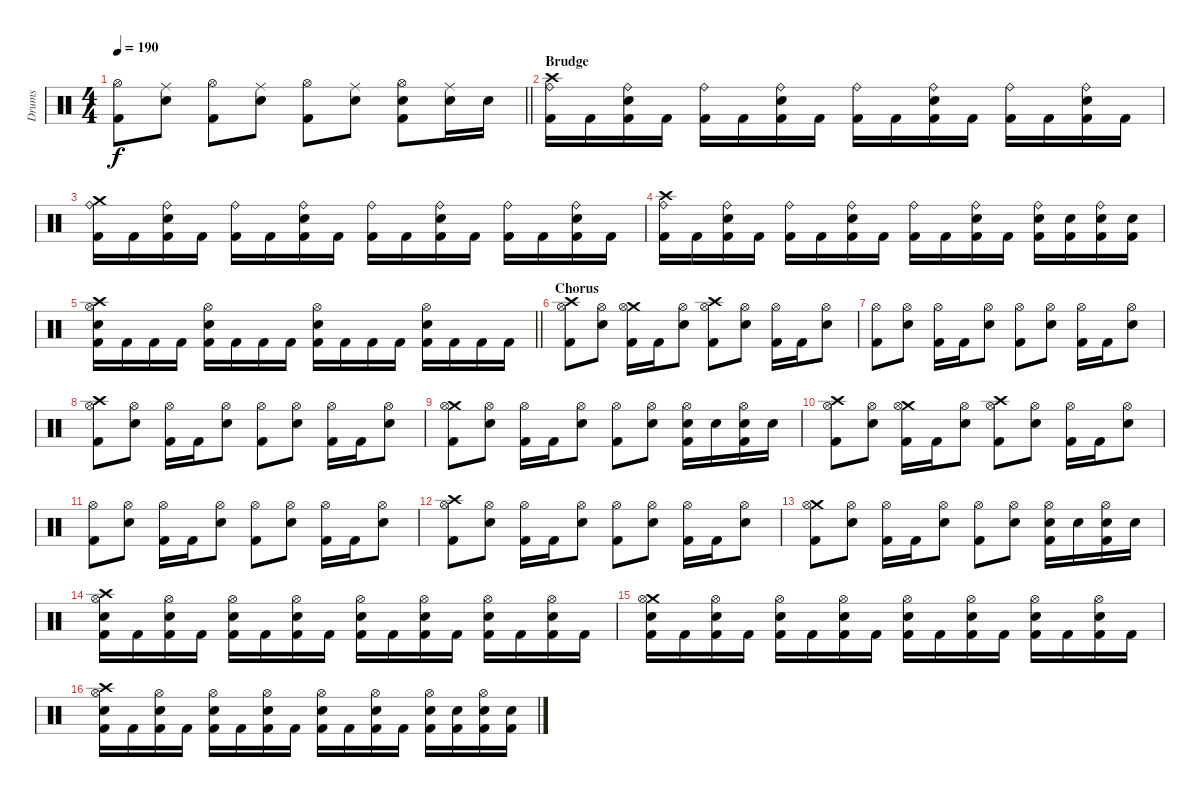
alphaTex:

\track ("Drums" "Drums") {instrument percussion}
\staff {score}
\articulation defaults
\ts (4 4)
\tempo 190
\clef neutral
\barLineRight lightlight
\ks c
("Hi-Hat (open)" "Kick (hit) 2").8{dy f} ("Ride (middle)" "Snare (hit) 2").8 ("Hi-Hat (open)" "Kick (hit) 2").8 ("Ride (middle)" "Snare (hit) 2").8 ("Hi-Hat (open)" "Kick (hit) 2").8 ("Ride (middle)" "Snare (hit) 2").8 ("Hi-Hat (open)" "Snare (hit) 2" "Kick (hit) 2").8 ("Ride (middle)" "Snare (hit) 2").16 "Snare (hit) 2".16 |
\section ("" "Brudge")
("Crash high (hit)" "Ride (bell)" "Kick (hit) 2").16 "Kick (hit) 2".16 ("Ride (bell)" "Snare (hit) 2" "Kick (hit) 2").16 "Kick (hit) 2".16 ("Ride (bell)" "Kick (hit) 2").16 "Kick (hit) 2".16 ("Ride (bell)" "Snare (hit) 2" "Kick (hit) 2").16 "Kick (hit) 2".16 ("Ride (bell)" "Kick (hit) 2").16 "Kick (hit) 2".16 ("Ride (bell)" "Snare (hit) 2" "Kick (hit) 2").16 "Kick (hit) 2".16 ("Ride (bell)" "Kick (hit) 2").16 "Kick (hit) 2".16 ("Ride (bell)" "Snare (hit) 2" "Kick (hit) 2").16 "Kick (hit) 2".16 |
("Crash medium (hit)" "Ride (bell)" "Kick (hit) 2").16 "Kick (hit) 2".16 ("Ride (bell)" "Snare (hit) 2" "Kick (hit) 2").16 "Kick (hit) 2".16 ("Ride (bell)" "Kick (hit) 2").16 "Kick (hit) 2".16 ("Ride (bell)" "Snare (hit) 2" "Kick (hit) 2").16 "Kick (hit) 2".16 ("Ride (bell)" "Kick (hit) 2").16 "Kick (hit) 2".16 ("Ride (bell)" "Snare (hit) 2" "Kick (hit) 2").16 "Kick (hit) 2".16 ("Ride (bell)" "Kick (hit) 2").16 "Kick (hit) 2".16 ("Ride (bell)" "Snare (hit) 2" "Kick (hit) 2").16 "Kick (hit) 2".16 |
("Crash high (hit)" "Ride (bell)" "Kick (hit) 2").16 "Kick (hit) 2".16 ("Ride (bell)" "Snare (hit) 2" "Kick (hit) 2").16 "Kick (hit) 2".16 ("Ride (bell)" "Kick (hit) 2").16 "Kick (hit) 2".16 ("Ride (bell)" "Snare (hit) 2" "Kick (hit) 2").16 "Kick (hit) 2".16 ("Ride (bell)" "Kick (hit) 2").16 "Kick (hit) 2".16 ("Ride (bell)" "Snare (hit) 2" "Kick (hit) 2").16 "Kick (hit) 2".16 ("Ride (bell)" "Snare (hit) 2" "Kick (hit) 2").16 ("Snare (hit) 2" "Kick (hit) 2").16 ("Ride (bell)" "Snare (hit) 2" "Kick (hit) 2").16 ("Snare (hit) 2" "Kick (hit) 2").16 |
\barLineRight lightlight
("Crash high (hit)" "Hi-Hat (open)" "Snare (hit) 2" "Kick (hit) 2").16 "Kick (hit) 2".16 "Kick (hit) 2".16 "Kick (hit) 2".16 ("Hi-Hat (open)" "Snare (hit) 2" "Kick (hit) 2").16 "Kick (hit) 2".16 "Kick (hit) 2".16 "Kick (hit) 2".16 ("Hi-Hat (open)" "Snare (hit) 2" "Kick (hit) 2").16 "Kick (hit) 2".16 "Kick (hit) 2".16 "Kick (hit) 2".16 ("Hi-Hat (open)" "Snare (hit) 2" "Kick (hit) 2").16 "Kick (hit) 2".16 "Kick (hit) 2".16 "Kick (hit) 2".16 |
\section ("" "Chorus")
("Crash high (hit)" "Hi-Hat (open)" "Kick (hit) 2").8 ("Hi-Hat (open)" "Snare (hit) 2").8 ("Crash medium (hit)" "Hi-Hat (open)" "Kick (hit) 2").16 "Kick (hit) 2".16 ("Hi-Hat (open)" "Snare (hit) 2").8 ("Crash high (hit)" "Hi-Hat (open)" "Kick (hit) 2").8 ("Hi-Hat (open)" "Snare (hit) 2").8 ("Hi-Hat (open)" "Kick (hit) 2").16 "Kick (hit) 2".16 ("Hi-Hat (open)" "Snare (hit) 2").8 |
("Hi-Hat (open)" "Kick (hit) 2").8 ("Hi-Hat (open)" "Snare (hit) 2").8 ("Hi-Hat (open)" "Kick (hit) 2").16 "Kick (hit) 2".16 ("Hi-Hat (open)" "Snare (hit) 2").8 ("Hi-Hat (open)" "Kick (hit) 2").8 ("Hi-Hat (open)" "Snare (hit) 2").8 ("Hi-Hat (open)" "Kick (hit) 2").16 "Kick (hit) 2".16 ("Hi-Hat (open)" "Snare (hit) 2").8 |
("Crash high (hit)" "Hi-Hat (open)" "Kick (hit) 2").8 ("Hi-Hat (open)" "Snare (hit) 2").8 ("Hi-Hat (open)" "Kick (hit) 2").16 "Kick (hit) 2".16 ("Hi-Hat (open)" "Snare (hit) 2").8 ("Hi-Hat (open)" "Kick (hit) 2").8 ("Hi-Hat (open)" "Snare (hit) 2").8 ("Hi-Hat (open)" "Kick (hit) 2").16 "Kick (hit) 2".16 ("Hi-Hat (open)" "Snare (hit) 2").8 |
("Crash medium (hit)" "Hi-Hat (open)" "Kick (hit) 2").8 ("Hi-Hat (open)" "Snare (hit) 2").8 ("Hi-Hat (open)" "Kick (hit) 2").16 "Kick (hit) 2".16 ("Hi-Hat (open)" "Snare (hit) 2").8 ("Hi-Hat (open)" "Kick (hit) 2").8 ("Hi-Hat (open)" "Snare (hit) 2").8 ("Hi-Hat (open)" "Snare (hit) 2" "Kick (hit) 2").16 "Snare (hit) 2".16 ("Hi-Hat (open)" "Snare (hit) 2" "Kick (hit) 2").16 "Snare (hit) 2".16 |
("Crash high (hit)" "Hi-Hat (open)" "Kick (hit) 2").8 ("Hi-Hat (open)" "Snare (hit) 2").8 ("Crash medium (hit)" "Hi-Hat (open)" "Kick (hit) 2").16 "Kick (hit) 2".16 ("Hi-Hat (open)" "Snare (hit) 2").8 ("Crash high (hit)" "Hi-Hat (open)" "Kick (hit) 2").8 ("Hi-Hat (open)" "Snare (hit) 2").8 ("Hi-Hat (open)" "Kick (hit) 2").16 "Kick (hit) 2".16 ("Hi-Hat (open)" "Snare (hit) 2").8 |
("Hi-Hat (open)" "Kick (hit) 2").8 ("Hi-Hat (open)" "Snare (hit) 2").8 ("Hi-Hat (open)" "Kick (hit) 2").16 "Kick (hit) 2".16 ("Hi-Hat (open)" "Snare (hit) 2").8 ("Hi-Hat (open)" "Kick (hit) 2").8 ("Hi-Hat (open)" "Snare (hit) 2").8 ("Hi-Hat (open)" "Kick (hit) 2").16 "Kick (hit) 2".16 ("Hi-Hat (open)" "Snare (hit) 2").8 |
("Crash high (hit)" "Hi-Hat (open)" "Kick (hit) 2").8 ("Hi-Hat (open)" "Snare (hit) 2").8 ("Hi-Hat (open)" "Kick (hit) 2").16 "Kick (hit) 2".16 ("Hi-Hat (open)" "Snare (hit) 2").8 ("Hi-Hat (open)" "Kick (hit) 2").8 ("Hi-Hat (open)" "Snare (hit) 2").8 ("Hi-Hat (open)" "Kick (hit) 2").16 "Kick (hit) 2".16 ("Hi-Hat (open)" "Snare (hit) 2").8 |
("Crash medium (hit)" "Hi-Hat (open)" "Kick (hit) 2").8 ("Hi-Hat (open)" "Snare (hit) 2").8 ("Hi-Hat (open)" "Kick (hit) 2").16 "Kick (hit) 2".16 ("Hi-Hat (open)" "Snare (hit) 2").8 ("Hi-Hat (open)" "Kick (hit) 2").8 ("Hi-Hat (open)" "Snare (hit) 2").8 ("Hi-Hat (open)" "Snare (hit) 2" "Kick (hit) 2").16 "Snare (hit) 2".16 ("Hi-Hat (open)" "Snare (hit) 2" "Kick (hit) 2").16 "Snare (hit) 2".16 |
("Crash high (hit)" "Hi-Hat (open)" "Snare (hit) 2" "Kick (hit) 2").16 "Kick (hit) 2".16 ("Hi-Hat (open)" "Snare (hit) 2" "Kick (hit) 2").16 "Kick (hit) 2".16 ("Hi-Hat (open)" "Snare (hit) 2" "Kick (hit) 2").16 "Kick (hit) 2".16 ("Hi-Hat (open)" "Snare (hit) 2" "Kick (hit) 2").16 "Kick (hit) 2".16 ("Hi-Hat (open)" "Snare (hit) 2" "Kick (hit) 2").16 "Kick (hit) 2".16 ("Hi-Hat (open)" "Snare (hit) 2" "Kick (hit) 2").16 "Kick (hit) 2".16 ("Hi-Hat (open)" "Snare (hit) 2" "Kick (hit) 2").16 "Kick (hit) 2".16 ("Hi-Hat (open)" "Snare (hit) 2" "Kick (hit) 2").16 "Kick (hit) 2".16 |
("Crash medium (hit)" "Hi-Hat (open)" "Snare (hit) 2" "Kick (hit) 2").16 "Kick (hit) 2".16 ("Hi-Hat (open)" "Snare (hit) 2" "Kick (hit) 2").16 "Kick (hit) 2".16 ("Hi-Hat (open)" "Snare (hit) 2" "Kick (hit) 2").16 "Kick (hit) 2".16 ("Hi-Hat (open)" "Snare (hit) 2" "Kick (hit) 2").16 "Kick (hit) 2".16 ("Hi-Hat (open)" "Snare (hit) 2" "Kick (hit) 2").16 "Kick (hit) 2".16 ("Hi-Hat (open)" "Snare (hit) 2" "Kick (hit) 2").16 "Kick (hit) 2".16 ("Hi-Hat (open)" "Snare (hit) 2" "Kick (hit) 2").16 "Kick (hit) 2".16 ("Hi-Hat (open)" "Snare (hit) 2" "Kick (hit) 2").16 "Kick (hit) 2".16 |
("Crash high (hit)" "Hi-Hat (open)" "Snare (hit) 2" "Kick (hit) 2").16 "Kick (hit) 2".16 ("Hi-Hat (open)" "Snare (hit) 2" "Kick (hit) 2").16 "Kick (hit) 2".16 ("Hi-Hat (open)" "Snare (hit) 2" "Kick (hit) 2").16 "Kick (hit) 2".16 ("Hi-Hat (open)" "Snare (hit) 2" "Kick (hit) 2").16 "Kick (hit) 2".16 ("Hi-Hat (open)" "Snare (hit) 2" "Kick (hit) 2").16 "Kick (hit) 2".16 ("Hi-Hat (open)" "Snare (hit) 2" "Kick (hit) 2").16 "Kick (hit) 2".16 ("Hi-Hat (open)" "Snare (hit) 2" "Kick (hit) 2").16 ("Snare (hit) 2" "Kick (hit) 2").16 ("Hi-Hat (open)" "Snare (hit) 2" "Kick (hit) 2").16 ("Snare (hit) 2" "Kick (hit) 2").16
